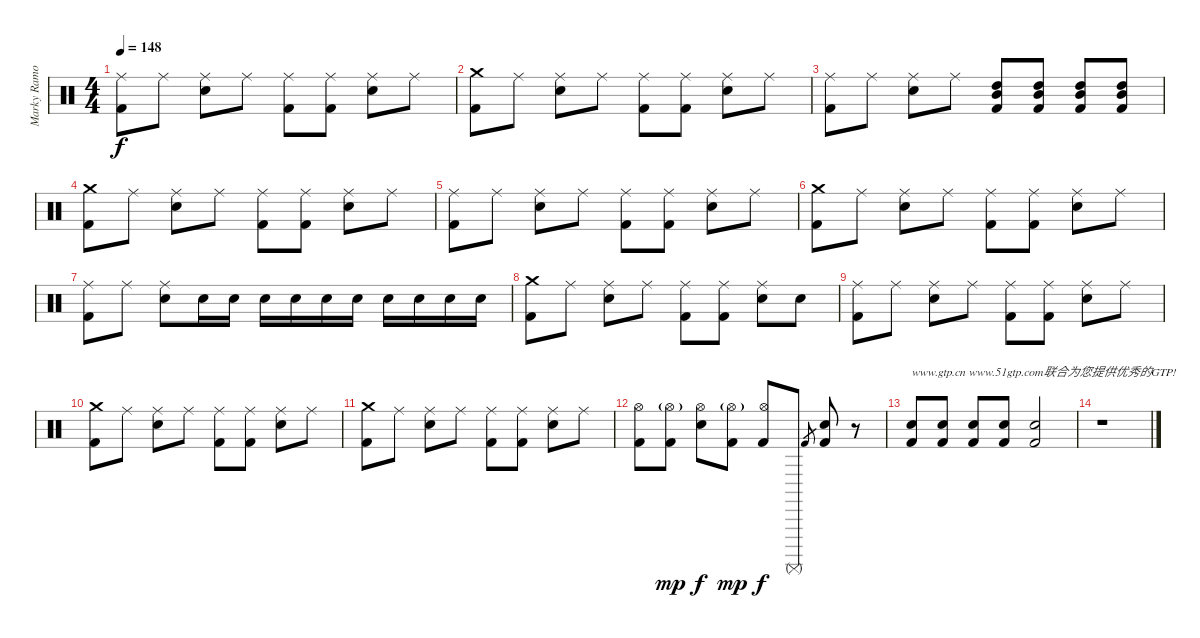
\track ("Marky Ramone" "Marky Ramo") {instrument percussion}
\staff {score}
\articulation defaults
\ts (4 4)
\tempo 148
\clef neutral
\ks c
("Ride (middle)" "Kick (hit) 2").8{dy f} "Ride (middle)".8 ("Ride (middle)" "Electric Snare (hit)").8 "Ride (middle)".8 ("Ride (middle)" "Kick (hit) 2").8 ("Ride (middle)" "Kick (hit) 2").8 ("Ride (middle)" "Electric Snare (hit)").8 "Ride (middle)".8 |
("Crash medium (hit)" "Kick (hit) 2").8 "Ride (middle)".8 ("Ride (middle)" "Electric Snare (hit)").8 "Ride (middle)".8 ("Ride (middle)" "Kick (hit) 2").8 ("Ride (middle)" "Kick (hit) 2").8 ("Ride (middle)" "Electric Snare (hit)").8 "Ride (middle)".8 |
("Ride (middle)" "Kick (hit) 2").8 "Ride (middle)".8 ("Ride (middle)" "Electric Snare (hit)").8 "Ride (middle)".8 ("High Tom (hit)" "Kick (hit) 2" "Mid Tom (hit)").8 ("High Tom (hit)" "Kick (hit) 2" "Mid Tom (hit)").8 ("High Tom (hit)" "Kick (hit) 2" "Mid Tom (hit)").8 ("High Tom (hit)" "Kick (hit) 2" "Mid Tom (hit)").8 |
("Crash medium (hit)" "Kick (hit) 2").8 "Ride (middle)".8 ("Ride (middle)" "Electric Snare (hit)").8 "Ride (middle)".8 ("Ride (middle)" "Kick (hit) 2").8 ("Ride (middle)" "Kick (hit) 2").8 ("Ride (middle)" "Electric Snare (hit)").8 "Ride (middle)".8 |
("Ride (middle)" "Kick (hit) 2").8 "Ride (middle)".8 ("Ride (middle)" "Electric Snare (hit)").8 "Ride (middle)".8 ("Ride (middle)" "Kick (hit) 2").8 ("Ride (middle)" "Kick (hit) 2").8 ("Ride (middle)" "Electric Snare (hit)").8 "Ride (middle)".8 |
("Crash medium (hit)" "Kick (hit) 2").8 "Ride (middle)".8 ("Ride (middle)" "Electric Snare (hit)").8 "Ride (middle)".8 ("Ride (middle)" "Kick (hit) 2").8 ("Ride (middle)" "Kick (hit) 2").8 ("Ride (middle)" "Electric Snare (hit)").8 "Ride (middle)".8 |
("Ride (middle)" "Kick (hit) 2").8 "Ride (middle)".8 ("Ride (middle)" "Electric Snare (hit)").8 "Electric Snare (hit)".16 "Electric Snare (hit)".16 "Electric Snare (hit)".16 "Electric Snare (hit)".16 "Electric Snare (hit)".16 "Electric Snare (hit)".16 "Electric Snare (hit)".16 "Electric Snare (hit)".16 "Electric Snare (hit)".16 "Electric Snare (hit)".16 |
("Crash medium (hit)" "Kick (hit) 2").8 "Ride (middle)".8 ("Ride (middle)" "Electric Snare (hit)").8 "Ride (middle)".8 ("Ride (middle)" "Kick (hit) 2").8 ("Ride (middle)" "Kick (hit) 2").8 ("Ride (middle)" "Electric Snare (hit)").8 "Snare (hit)".8 |
("Ride (middle)" "Kick (hit) 2").8 "Ride (middle)".8 ("Ride (middle)" "Electric Snare (hit)").8 "Ride (middle)".8 ("Ride (middle)" "Kick (hit) 2").8 ("Ride (middle)" "Kick (hit) 2").8 ("Ride (middle)" "Electric Snare (hit)").8 "Ride (middle)".8 |
("Crash medium (hit)" "Kick (hit) 2").8 "Ride (middle)".8 ("Ride (middle)" "Electric Snare (hit)").8 "Ride (middle)".8 ("Ride (middle)" "Kick (hit) 2").8 ("Ride (middle)" "Kick (hit) 2").8 ("Ride (middle)" "Electric Snare (hit)").8 "Ride (middle)".8 |
("Crash medium (hit)" "Kick (hit) 2").8 "Ride (middle)".8 ("Ride (middle)" "Electric Snare (hit)").8 "Ride (middle)".8 ("Ride (middle)" "Kick (hit) 2").8 ("Ride (middle)" "Kick (hit) 2").8 ("Ride (middle)" "Electric Snare (hit)").8 "Ride (middle)".8 |
("Hi-Hat (open)" "Kick (hit) 2").8 ("Hi-Hat (open)"{g} "Kick (hit) 2").8{dy mp} ("Hi-Hat (open)" "Electric Snare (hit)").8{dy f} ("Hi-Hat (open)"{g} "Kick (hit) 2").8{dy mp} ("Hi-Hat (open)" "Kick (hit) 2").8{dy f} "Surdo (mute)".8 "Kick (hit) 2".8{gr} ("Electric Snare (hit)" "Kick (hit) 2").8{bd 480} r.8 |
("Kick (hit) 2" "Electric Snare (hit)").8{txt "www.gtp.cn www.51gtp.com联合为您提供优秀的GTP!"} ("Kick (hit) 2" "Electric Snare (hit)").8 ("Kick (hit) 2" "Electric Snare (hit)").8 ("Kick (hit) 2" "Electric Snare (hit)").8 ("Kick (hit) 2" "Electric Snare (hit)").2 |
r.1
